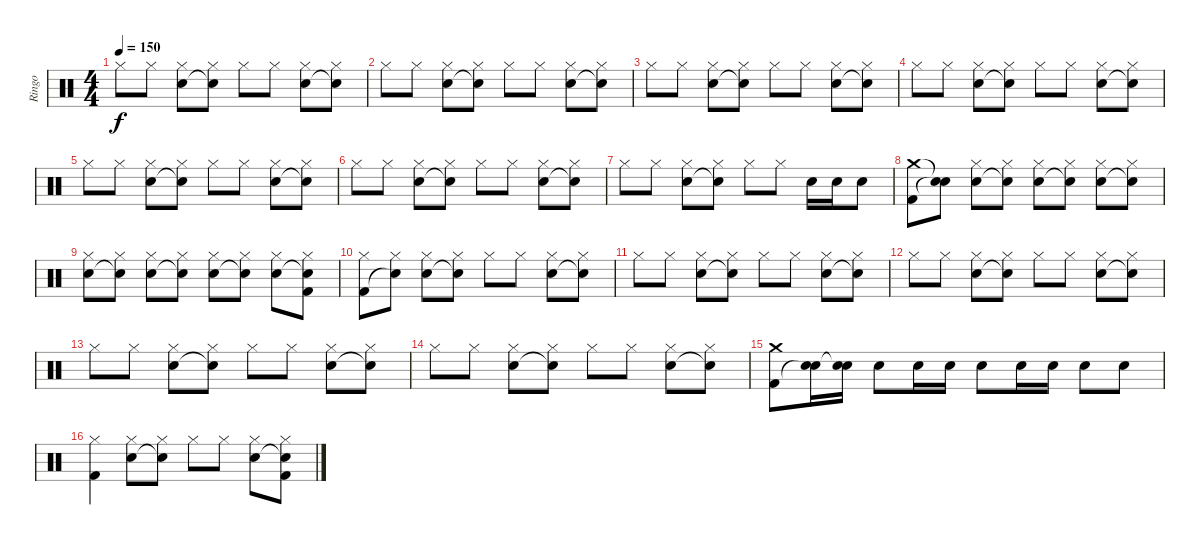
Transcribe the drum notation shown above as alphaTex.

\track ("Ringo" "Ringo") {instrument percussion}
\staff {score}
\articulation defaults
\ts (4 4)
\tempo 150
\clef neutral
\ks c "Hi-Hat (closed)".8{dy f} "Hi-Hat (closed)".8
("Hi-Hat (closed)" "Snare (hit) 2").8 ("Hi-Hat (closed)" "Snare (hit)"{t}).8 "Hi-Hat (closed)".8 "Hi-Hat (closed)".8 ("Hi-Hat (closed)" "Snare (hit) 2").8 ("Hi-Hat (closed)" "Snare (hit)"{t}).8 |
"Hi-Hat (closed)".8 "Hi-Hat (closed)".8 ("Hi-Hat (closed)" "Snare (hit) 2").8 ("Hi-Hat (closed)" "Snare (hit)"{t}).8 "Hi-Hat (closed)".8 "Hi-Hat (closed)".8 ("Hi-Hat (closed)" "Snare (hit) 2").8 ("Hi-Hat (closed)" "Snare (hit)"{t}).8 |
"Hi-Hat (closed)".8 "Hi-Hat (closed)".8 ("Hi-Hat (closed)" "Snare (hit) 2").8 ("Hi-Hat (closed)" "Snare (hit)"{t}).8 "Hi-Hat (closed)".8 "Hi-Hat (closed)".8 ("Hi-Hat (closed)" "Snare (hit) 2").8 ("Hi-Hat (closed)" "Snare (hit)"{t}).8 |
"Hi-Hat (closed)".8 "Hi-Hat (closed)".8 ("Hi-Hat (closed)" "Snare (hit) 2").8 ("Hi-Hat (closed)" "Snare (hit)"{t}).8 "Hi-Hat (closed)".8 "Hi-Hat (closed)".8 ("Hi-Hat (closed)" "Snare (hit) 2").8 ("Hi-Hat (closed)" "Snare (hit)"{t}).8 |
"Hi-Hat (closed)".8 "Hi-Hat (closed)".8 ("Hi-Hat (closed)" "Snare (hit) 2").8 ("Hi-Hat (closed)" "Snare (hit)"{t}).8 "Hi-Hat (closed)".8 "Hi-Hat (closed)".8 ("Hi-Hat (closed)" "Snare (hit) 2").8 ("Hi-Hat (closed)" "Snare (hit)"{t}).8 |
"Hi-Hat (closed)".8 "Hi-Hat (closed)".8 ("Hi-Hat (closed)" "Snare (hit) 2").8 ("Hi-Hat (closed)" "Snare (hit)"{t}).8 "Hi-Hat (closed)".8 "Hi-Hat (closed)".8 ("Hi-Hat (closed)" "Snare (hit) 2").8 ("Hi-Hat (closed)" "Snare (hit)"{t}).8 |
"Hi-Hat (closed)".8 "Hi-Hat (closed)".8 ("Hi-Hat (closed)" "Snare (hit) 2").8 ("Hi-Hat (closed)" "Snare (hit)"{t}).8 "Hi-Hat (closed)".8 "Hi-Hat (closed)".8 "Snare (hit) 2".16 "Snare (hit) 2".16 "Snare (hit) 2".8 |
("Crash medium (hit)" "Kick (hit) 2").8 ("Snare (hit)"{t} "Snare (hit)"{t}).8 ("Hi-Hat (closed)" "Snare (hit) 2").8 ("Hi-Hat (closed)" "Snare (hit)"{t}).8 ("Hi-Hat (closed)" "Snare (hit) 2").8 ("Hi-Hat (closed)" "Snare (hit)"{t}).8 ("Hi-Hat (closed)" "Snare (hit) 2").8 ("Hi-Hat (closed)" "Snare (hit)"{t}).8 |
("Hi-Hat (closed)" "Snare (hit) 2").8 ("Hi-Hat (closed)" "Snare (hit)"{t}).8 ("Hi-Hat (closed)" "Snare (hit) 2").8 ("Hi-Hat (closed)" "Snare (hit)"{t}).8 ("Hi-Hat (closed)" "Snare (hit) 2").8 ("Hi-Hat (closed)" "Snare (hit)"{t}).8 ("Hi-Hat (closed)" "Snare (hit) 2").8 ("Hi-Hat (closed)" "Snare (hit)"{t} "Kick (hit) 2").8 |
("Hi-Hat (closed)" "Kick (hit) 2").8 ("Hi-Hat (closed)" "Snare (hit)"{t}).8 ("Hi-Hat (closed)" "Snare (hit) 2").8 ("Hi-Hat (closed)" "Snare (hit)"{t}).8 "Hi-Hat (closed)".8 "Hi-Hat (closed)".8 ("Hi-Hat (closed)" "Snare (hit) 2").8 ("Hi-Hat (closed)" "Snare (hit)"{t}).8 |
"Hi-Hat (closed)".8 "Hi-Hat (closed)".8 ("Hi-Hat (closed)" "Snare (hit) 2").8 ("Hi-Hat (closed)" "Snare (hit)"{t}).8 "Hi-Hat (closed)".8 "Hi-Hat (closed)".8 ("Hi-Hat (closed)" "Snare (hit) 2").8 ("Hi-Hat (closed)" "Snare (hit)"{t}).8 |
"Hi-Hat (closed)".8 "Hi-Hat (closed)".8 ("Hi-Hat (closed)" "Snare (hit) 2").8 ("Hi-Hat (closed)" "Snare (hit)"{t}).8 "Hi-Hat (closed)".8 "Hi-Hat (closed)".8 ("Hi-Hat (closed)" "Snare (hit) 2").8 ("Hi-Hat (closed)" "Snare (hit)"{t}).8 |
"Hi-Hat (closed)".8 "Hi-Hat (closed)".8 ("Hi-Hat (closed)" "Snare (hit) 2").8 ("Hi-Hat (closed)" "Snare (hit)"{t}).8 "Hi-Hat (closed)".8 "Hi-Hat (closed)".8 ("Hi-Hat (closed)" "Snare (hit) 2").8 ("Hi-Hat (closed)" "Snare (hit)"{t}).8 |
"Hi-Hat (closed)".8 "Hi-Hat (closed)".8 ("Hi-Hat (closed)" "Snare (hit) 2").8 ("Hi-Hat (closed)" "Snare (hit)"{t}).8 "Hi-Hat (closed)".8 "Hi-Hat (closed)".8 ("Hi-Hat (closed)" "Snare (hit) 2").8 ("Hi-Hat (closed)" "Snare (hit)"{t}).8 |
("Crash medium (hit)" "Kick (hit) 2").8 ("Snare (hit) 2" "Snare (hit)"{t}).16 ("Snare (hit) 2" "Snare (hit)"{t}).16 "Snare (hit) 2".8 "Snare (hit) 2".16 "Snare (hit) 2".16 "Snare (hit) 2".8 "Snare (hit) 2".16 "Snare (hit) 2".16 "Snare (hit) 2".8 "Snare (hit) 2".8 |
("Hi-Hat (closed)" "Kick (hit) 2").4 ("Hi-Hat (closed)" "Snare (hit) 2").8 ("Hi-Hat (closed)" "Snare (hit)"{t}).8 "Hi-Hat (closed)".8 "Hi-Hat (closed)".8 ("Hi-Hat (closed)" "Snare (hit) 2").8 ("Hi-Hat (closed)" "Snare (hit)"{t} "Kick (hit) 2").8
